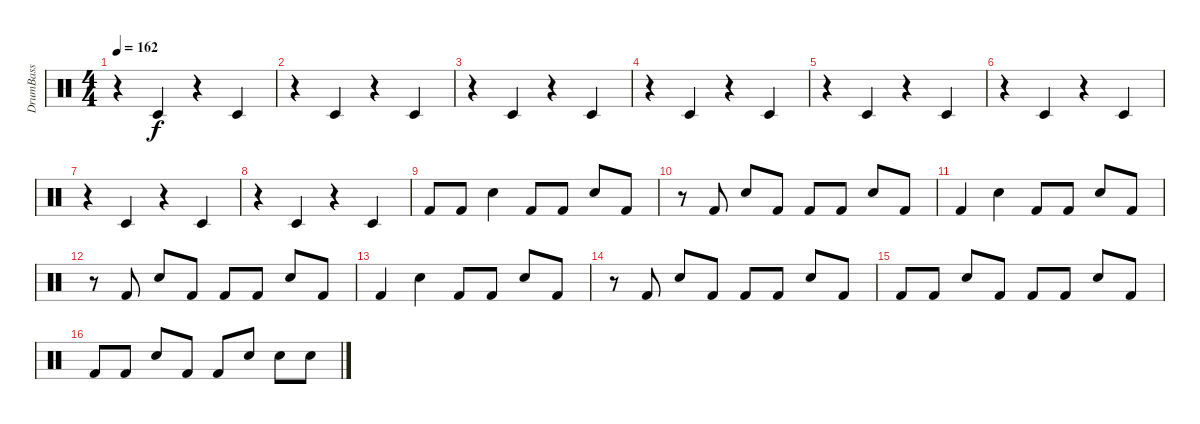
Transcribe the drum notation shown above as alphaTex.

\track ("DrumBass" "DrumBass") {instrument percussion}
\staff {score}
\articulation defaults
\ts (4 4)
\tempo 162
\clef neutral
\ks c
r.4{dy f} "Timbale low (hit)".4 r.4 "Timbale low (hit)".4 |
r.4 "Timbale low (hit)".4 r.4 "Timbale low (hit)".4 |
r.4 "Timbale low (hit)".4 r.4 "Timbale low (hit)".4 |
r.4 "Timbale low (hit)".4 r.4 "Timbale low (hit)".4 |
r.4 "Timbale low (hit)".4 r.4 "Timbale low (hit)".4 |
r.4 "Timbale low (hit)".4 r.4 "Timbale low (hit)".4 |
r.4 "Timbale low (hit)".4 r.4 "Timbale low (hit)".4 |
r.4 "Timbale low (hit)".4 r.4 "Timbale low (hit)".4 |
"Kick (hit) 2".8 "Kick (hit) 2".8 "Snare (hit) 2".4 "Kick (hit) 2".8 "Kick (hit) 2".8 "Snare (hit) 2".8 "Kick (hit) 2".8 |
r.8 "Kick (hit) 2".8 "Snare (hit) 2".8 "Kick (hit) 2".8 "Kick (hit) 2".8 "Kick (hit) 2".8 "Snare (hit) 2".8 "Kick (hit) 2".8 |
"Kick (hit) 2".4 "Snare (hit) 2".4 "Kick (hit) 2".8 "Kick (hit) 2".8 "Snare (hit) 2".8 "Kick (hit) 2".8 |
r.8 "Kick (hit) 2".8 "Snare (hit) 2".8 "Kick (hit) 2".8 "Kick (hit) 2".8 "Kick (hit) 2".8 "Snare (hit) 2".8 "Kick (hit) 2".8 |
"Kick (hit) 2".4 "Snare (hit) 2".4 "Kick (hit) 2".8 "Kick (hit) 2".8 "Snare (hit) 2".8 "Kick (hit) 2".8 |
r.8 "Kick (hit) 2".8 "Snare (hit) 2".8 "Kick (hit) 2".8 "Kick (hit) 2".8 "Kick (hit) 2".8 "Snare (hit) 2".8 "Kick (hit) 2".8 |
"Kick (hit) 2".8 "Kick (hit) 2".8 "Snare (hit) 2".8 "Kick (hit) 2".8 "Kick (hit) 2".8 "Kick (hit) 2".8 "Snare (hit) 2".8 "Kick (hit) 2".8 |
"Kick (hit) 2".8 "Kick (hit) 2".8 "Snare (hit) 2".8 "Kick (hit) 2".8 "Kick (hit) 2".8 "Snare (hit) 2"{tr (38 16)}.8 "Snare (hit) 2"{tr (38 16)}.8 "Snare (hit) 2"{tr (38 16)}.8
